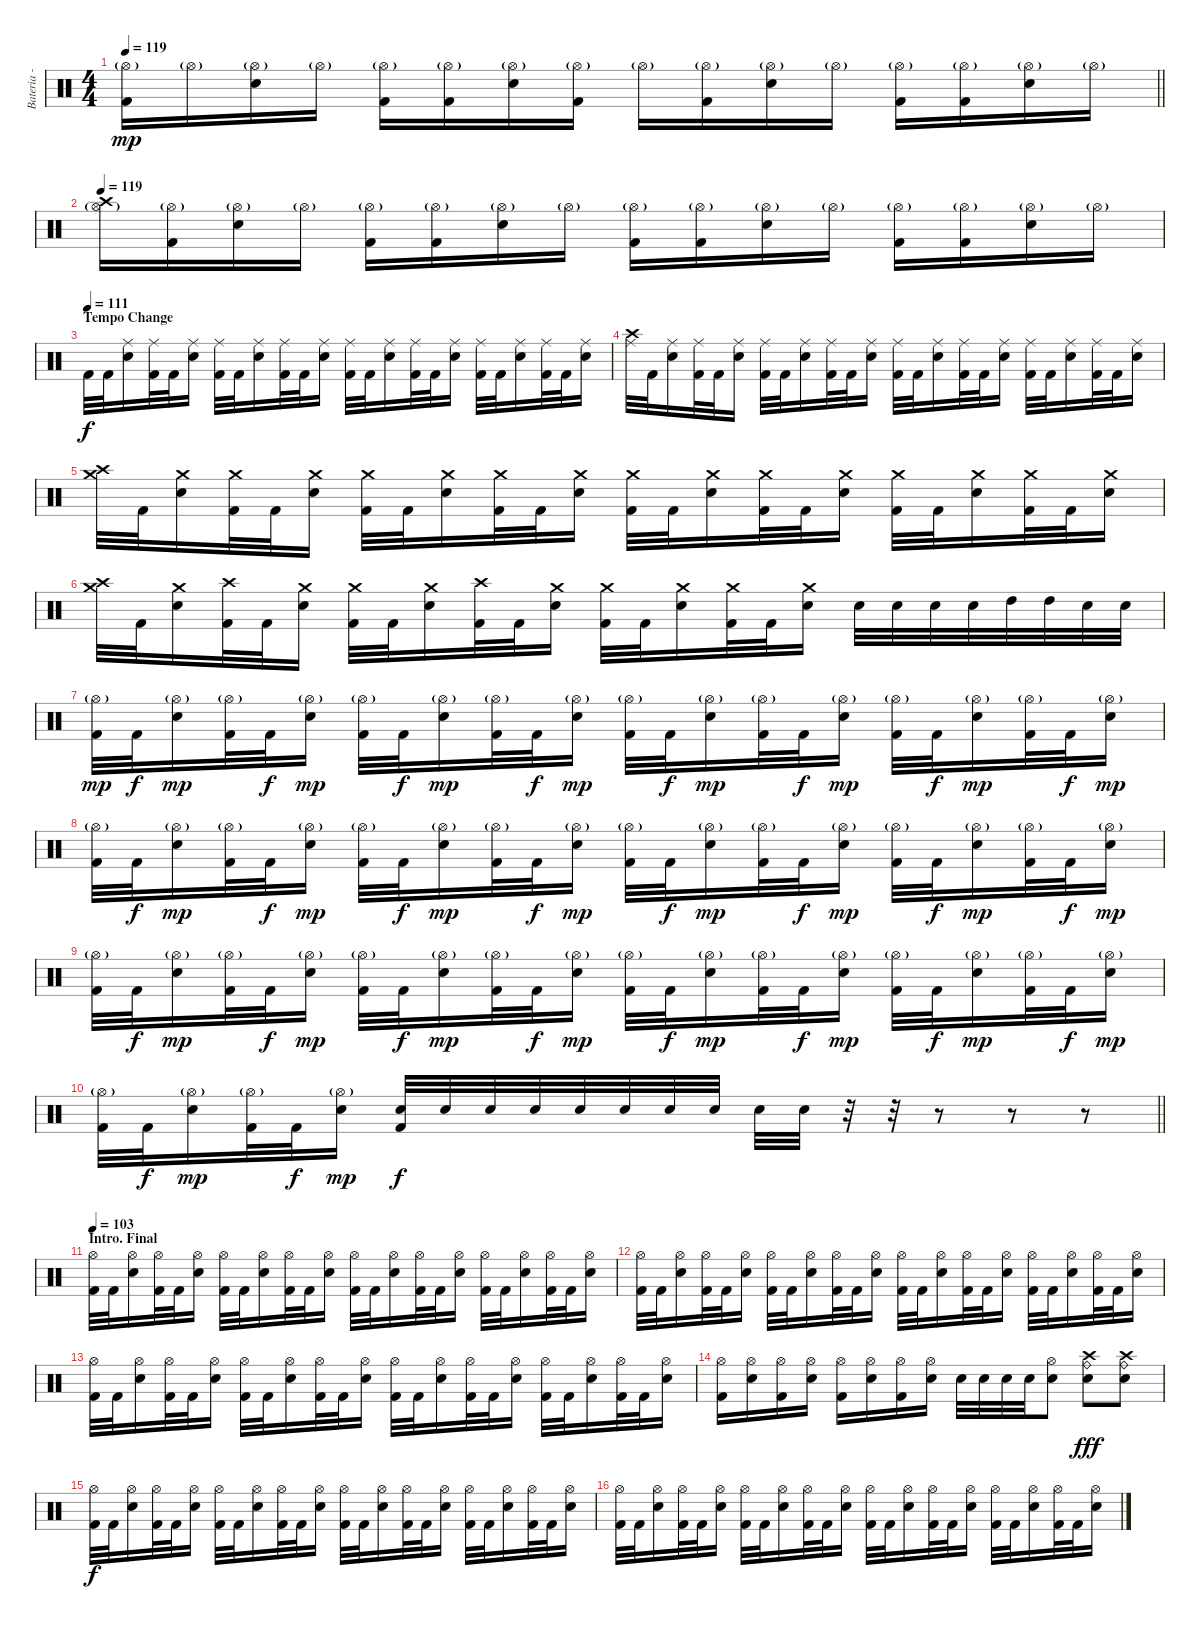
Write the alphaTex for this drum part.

\track ("Bateria - Larzon" "Bateria - ") {instrument percussion}
\staff {score}
\articulation defaults
\ts (4 4)
\tempo 119
\clef neutral
\barLineRight lightlight
\ks c
("Kick (hit) 2" "Hi-Hat (open)"{g}).16{dy mp} "Hi-Hat (open)"{g}.16 ("Electric Snare (hit)" "Hi-Hat (open)"{g}).16 "Hi-Hat (open)"{g}.16 ("Kick (hit) 2" "Hi-Hat (open)"{g}).16 ("Kick (hit) 2" "Hi-Hat (open)"{g}).16 ("Electric Snare (hit)" "Hi-Hat (open)"{g}).16 ("Kick (hit) 2" "Hi-Hat (open)"{g}).16 "Hi-Hat (open)"{g}.16 ("Kick (hit) 2" "Hi-Hat (open)"{g}).16 ("Electric Snare (hit)" "Hi-Hat (open)"{g}).16 "Hi-Hat (open)"{g}.16 ("Kick (hit) 2" "Hi-Hat (open)"{g}).16 ("Kick (hit) 2" "Hi-Hat (open)"{g}).16 ("Electric Snare (hit)" "Hi-Hat (open)"{g}).16 "Hi-Hat (open)"{g}.16 |
\tempo 119
("Crash high (hit)" "Hi-Hat (open)"{g}).16 ("Kick (hit) 2" "Hi-Hat (open)"{g}).16 ("Electric Snare (hit)" "Hi-Hat (open)"{g}).16 "Hi-Hat (open)"{g}.16 ("Kick (hit) 2" "Hi-Hat (open)"{g}).16 ("Kick (hit) 2" "Hi-Hat (open)"{g}).16 ("Electric Snare (hit)" "Hi-Hat (open)"{g}).16 "Hi-Hat (open)"{g}.16 ("Kick (hit) 2" "Hi-Hat (open)"{g}).16 ("Kick (hit) 2" "Hi-Hat (open)"{g}).16 ("Electric Snare (hit)" "Hi-Hat (open)"{g}).16 "Hi-Hat (open)"{g}.16 ("Kick (hit) 2" "Hi-Hat (open)"{g}).16 ("Kick (hit) 2" "Hi-Hat (open)"{g}).16 ("Electric Snare (hit)" "Hi-Hat (open)"{g}).16 "Hi-Hat (open)"{g}.16 |
\section ("" "Tempo Change")
\tempo (111)
"Kick (hit) 2".32{dy f} "Kick (hit) 2".32 ("Snare (hit) 2" "Ride (middle)").16 ("Kick (hit) 2" "Ride (middle)").32 "Kick (hit) 2".32 ("Snare (hit) 2" "Ride (middle)").16 ("Kick (hit) 2" "Ride (middle)").32 "Kick (hit) 2".32 ("Snare (hit) 2" "Ride (middle)").16 ("Kick (hit) 2" "Ride (middle)").32 "Kick (hit) 2".32 ("Snare (hit) 2" "Ride (middle)").16 ("Kick (hit) 2" "Ride (middle)").32 "Kick (hit) 2".32 ("Snare (hit) 2" "Ride (middle)").16 ("Kick (hit) 2" "Ride (middle)").32 "Kick (hit) 2".32 ("Snare (hit) 2" "Ride (middle)").16 ("Kick (hit) 2" "Ride (middle)").32 "Kick (hit) 2".32 ("Snare (hit) 2" "Ride (middle)").16 ("Kick (hit) 2" "Ride (middle)").32 "Kick (hit) 2".32 ("Snare (hit) 2" "Ride (middle)").16 |
("Crash high (hit)" "Ride (middle)").32 "Kick (hit) 2".32 ("Snare (hit) 2" "Ride (middle)").16 ("Kick (hit) 2" "Ride (middle)").32 "Kick (hit) 2".32 ("Snare (hit) 2" "Ride (middle)").16 ("Kick (hit) 2" "Ride (middle)").32 "Kick (hit) 2".32 ("Snare (hit) 2" "Ride (middle)").16 ("Kick (hit) 2" "Ride (middle)").32 "Kick (hit) 2".32 ("Snare (hit) 2" "Ride (middle)").16 ("Kick (hit) 2" "Ride (middle)").32 "Kick (hit) 2".32 ("Snare (hit) 2" "Ride (middle)").16 ("Kick (hit) 2" "Ride (middle)").32 "Kick (hit) 2".32 ("Snare (hit) 2" "Ride (middle)").16 ("Kick (hit) 2" "Ride (middle)").32 "Kick (hit) 2".32 ("Snare (hit) 2" "Ride (middle)").16 ("Kick (hit) 2" "Ride (middle)").32 "Kick (hit) 2".32 ("Snare (hit) 2" "Ride (middle)").16 |
("Crash high (hit)" "Crash medium (hit)").32 "Kick (hit) 2".32 ("Snare (hit) 2" "Crash medium (hit)").16 ("Kick (hit) 2" "Crash medium (hit)").32 "Kick (hit) 2".32 ("Snare (hit) 2" "Crash medium (hit)").16 ("Kick (hit) 2" "Crash medium (hit)").32 "Kick (hit) 2".32 ("Snare (hit) 2" "Crash medium (hit)").16 ("Kick (hit) 2" "Crash medium (hit)").32 "Kick (hit) 2".32 ("Snare (hit) 2" "Crash medium (hit)").16 ("Kick (hit) 2" "Crash medium (hit)").32 "Kick (hit) 2".32 ("Snare (hit) 2" "Crash medium (hit)").16 ("Kick (hit) 2" "Crash medium (hit)").32 "Kick (hit) 2".32 ("Snare (hit) 2" "Crash medium (hit)").16 ("Kick (hit) 2" "Crash medium (hit)").32 "Kick (hit) 2".32 ("Snare (hit) 2" "Crash medium (hit)").16 ("Kick (hit) 2" "Crash medium (hit)").32 "Kick (hit) 2".32 ("Snare (hit) 2" "Crash medium (hit)").16 |
("Crash high (hit)" "Crash medium (hit)").32 "Kick (hit) 2".32 ("Snare (hit) 2" "Crash medium (hit)").16 ("Kick (hit) 2" "Crash high (hit)").32 "Kick (hit) 2".32 ("Snare (hit) 2" "Crash medium (hit)").16 ("Kick (hit) 2" "Crash medium (hit)").32 "Kick (hit) 2".32 ("Snare (hit) 2" "Crash medium (hit)").16 ("Kick (hit) 2" "Crash high (hit)").32 "Kick (hit) 2".32 ("Snare (hit) 2" "Crash medium (hit)").16 ("Kick (hit) 2" "Crash medium (hit)").32 "Kick (hit) 2".32 ("Snare (hit) 2" "Crash medium (hit)").16 ("Kick (hit) 2" "Crash medium (hit)").32 "Kick (hit) 2".32 ("Snare (hit) 2" "Crash medium (hit)").16 "Snare (hit) 2".32 "Snare (hit) 2".32 "Snare (hit) 2".32 "Snare (hit) 2".32 "High Tom (hit)".32 "High Tom (hit)".32 "Snare (hit) 2".32 "Snare (hit) 2".32 |
("Kick (hit) 2" "Hi-Hat (open)"{g}).32{dy mp} "Kick (hit) 2".32{dy f} ("Snare (hit) 2" "Hi-Hat (open)"{g}).16{dy mp} ("Kick (hit) 2" "Hi-Hat (open)"{g}).32 "Kick (hit) 2".32{dy f} ("Snare (hit) 2" "Hi-Hat (open)"{g}).16{dy mp} ("Kick (hit) 2" "Hi-Hat (open)"{g}).32 "Kick (hit) 2".32{dy f} ("Snare (hit) 2" "Hi-Hat (open)"{g}).16{dy mp} ("Kick (hit) 2" "Hi-Hat (open)"{g}).32 "Kick (hit) 2".32{dy f} ("Snare (hit) 2" "Hi-Hat (open)"{g}).16{dy mp} ("Kick (hit) 2" "Hi-Hat (open)"{g}).32 "Kick (hit) 2".32{dy f} ("Snare (hit) 2" "Hi-Hat (open)"{g}).16{dy mp} ("Kick (hit) 2" "Hi-Hat (open)"{g}).32 "Kick (hit) 2".32{dy f} ("Snare (hit) 2" "Hi-Hat (open)"{g}).16{dy mp} ("Kick (hit) 2" "Hi-Hat (open)"{g}).32 "Kick (hit) 2".32{dy f} ("Snare (hit) 2" "Hi-Hat (open)"{g}).16{dy mp} ("Kick (hit) 2" "Hi-Hat (open)"{g}).32 "Kick (hit) 2".32{dy f} ("Snare (hit) 2" "Hi-Hat (open)"{g}).16{dy mp} |
("Kick (hit) 2" "Hi-Hat (open)"{g}).32 "Kick (hit) 2".32{dy f} ("Snare (hit) 2" "Hi-Hat (open)"{g}).16{dy mp} ("Kick (hit) 2" "Hi-Hat (open)"{g}).32 "Kick (hit) 2".32{dy f} ("Snare (hit) 2" "Hi-Hat (open)"{g}).16{dy mp} ("Kick (hit) 2" "Hi-Hat (open)"{g}).32 "Kick (hit) 2".32{dy f} ("Snare (hit) 2" "Hi-Hat (open)"{g}).16{dy mp} ("Kick (hit) 2" "Hi-Hat (open)"{g}).32 "Kick (hit) 2".32{dy f} ("Snare (hit) 2" "Hi-Hat (open)"{g}).16{dy mp} ("Kick (hit) 2" "Hi-Hat (open)"{g}).32 "Kick (hit) 2".32{dy f} ("Snare (hit) 2" "Hi-Hat (open)"{g}).16{dy mp} ("Kick (hit) 2" "Hi-Hat (open)"{g}).32 "Kick (hit) 2".32{dy f} ("Snare (hit) 2" "Hi-Hat (open)"{g}).16{dy mp} ("Kick (hit) 2" "Hi-Hat (open)"{g}).32 "Kick (hit) 2".32{dy f} ("Snare (hit) 2" "Hi-Hat (open)"{g}).16{dy mp} ("Kick (hit) 2" "Hi-Hat (open)"{g}).32 "Kick (hit) 2".32{dy f} ("Snare (hit) 2" "Hi-Hat (open)"{g}).16{dy mp} |
("Kick (hit) 2" "Hi-Hat (open)"{g}).32 "Kick (hit) 2".32{dy f} ("Snare (hit) 2" "Hi-Hat (open)"{g}).16{dy mp} ("Kick (hit) 2" "Hi-Hat (open)"{g}).32 "Kick (hit) 2".32{dy f} ("Snare (hit) 2" "Hi-Hat (open)"{g}).16{dy mp} ("Kick (hit) 2" "Hi-Hat (open)"{g}).32 "Kick (hit) 2".32{dy f} ("Snare (hit) 2" "Hi-Hat (open)"{g}).16{dy mp} ("Kick (hit) 2" "Hi-Hat (open)"{g}).32 "Kick (hit) 2".32{dy f} ("Snare (hit) 2" "Hi-Hat (open)"{g}).16{dy mp} ("Kick (hit) 2" "Hi-Hat (open)"{g}).32 "Kick (hit) 2".32{dy f} ("Snare (hit) 2" "Hi-Hat (open)"{g}).16{dy mp} ("Kick (hit) 2" "Hi-Hat (open)"{g}).32 "Kick (hit) 2".32{dy f} ("Snare (hit) 2" "Hi-Hat (open)"{g}).16{dy mp} ("Kick (hit) 2" "Hi-Hat (open)"{g}).32 "Kick (hit) 2".32{dy f} ("Snare (hit) 2" "Hi-Hat (open)"{g}).16{dy mp} ("Kick (hit) 2" "Hi-Hat (open)"{g}).32 "Kick (hit) 2".32{dy f} ("Snare (hit) 2" "Hi-Hat (open)"{g}).16{dy mp} |
\barLineRight lightlight
("Kick (hit) 2" "Hi-Hat (open)"{g}).32 "Kick (hit) 2".32{dy f} ("Snare (hit) 2" "Hi-Hat (open)"{g}).16{dy mp} ("Kick (hit) 2" "Hi-Hat (open)"{g}).32 "Kick (hit) 2".32{dy f} ("Snare (hit) 2" "Hi-Hat (open)"{g}).16{dy mp} ("Snare (hit) 2" "Kick (hit) 2").32{dy f} "Snare (hit) 2".32 "Snare (hit) 2".32 "Snare (hit) 2".32 "Snare (hit) 2".32 "Snare (hit) 2".32 "Snare (hit) 2".32 "Snare (hit) 2".32 "Snare (hit) 2".32 "Snare (hit) 2".32 r.32 r.32 r.8 r.8 r.8 |
\section ("" "Intro. Final")
\tempo 103
("Kick (hit) 2" "Hi-Hat (open)").32 "Kick (hit) 2".32 ("Snare (hit) 2" "Hi-Hat (open)").16 ("Kick (hit) 2" "Hi-Hat (open)").32 "Kick (hit) 2".32 ("Snare (hit) 2" "Hi-Hat (open)").16 ("Kick (hit) 2" "Hi-Hat (open)").32 "Kick (hit) 2".32 ("Snare (hit) 2" "Hi-Hat (open)").16 ("Kick (hit) 2" "Hi-Hat (open)").32 "Kick (hit) 2".32 ("Snare (hit) 2" "Hi-Hat (open)").16 ("Kick (hit) 2" "Hi-Hat (open)").32 "Kick (hit) 2".32 ("Snare (hit) 2" "Hi-Hat (open)").16 ("Kick (hit) 2" "Hi-Hat (open)").32 "Kick (hit) 2".32 ("Snare (hit) 2" "Hi-Hat (open)").16 ("Kick (hit) 2" "Hi-Hat (open)").32 "Kick (hit) 2".32 ("Snare (hit) 2" "Hi-Hat (open)").16 ("Kick (hit) 2" "Hi-Hat (open)").32 "Kick (hit) 2".32 ("Snare (hit) 2" "Hi-Hat (open)").16 |
("Kick (hit) 2" "Hi-Hat (open)").32 "Kick (hit) 2".32 ("Snare (hit) 2" "Hi-Hat (open)").16 ("Kick (hit) 2" "Hi-Hat (open)").32 "Kick (hit) 2".32 ("Snare (hit) 2" "Hi-Hat (open)").16 ("Kick (hit) 2" "Hi-Hat (open)").32 "Kick (hit) 2".32 ("Snare (hit) 2" "Hi-Hat (open)").16 ("Kick (hit) 2" "Hi-Hat (open)").32 "Kick (hit) 2".32 ("Snare (hit) 2" "Hi-Hat (open)").16 ("Kick (hit) 2" "Hi-Hat (open)").32 "Kick (hit) 2".32 ("Snare (hit) 2" "Hi-Hat (open)").16 ("Kick (hit) 2" "Hi-Hat (open)").32 "Kick (hit) 2".32 ("Snare (hit) 2" "Hi-Hat (open)").16 ("Kick (hit) 2" "Hi-Hat (open)").32 "Kick (hit) 2".32 ("Snare (hit) 2" "Hi-Hat (open)").16 ("Kick (hit) 2" "Hi-Hat (open)").32 "Kick (hit) 2".32 ("Snare (hit) 2" "Hi-Hat (open)").16 |
("Kick (hit) 2" "Hi-Hat (open)").32 "Kick (hit) 2".32 ("Snare (hit) 2" "Hi-Hat (open)").16 ("Kick (hit) 2" "Hi-Hat (open)").32 "Kick (hit) 2".32 ("Snare (hit) 2" "Hi-Hat (open)").16 ("Kick (hit) 2" "Hi-Hat (open)").32 "Kick (hit) 2".32 ("Snare (hit) 2" "Hi-Hat (open)").16 ("Kick (hit) 2" "Hi-Hat (open)").32 "Kick (hit) 2".32 ("Snare (hit) 2" "Hi-Hat (open)").16 ("Kick (hit) 2" "Hi-Hat (open)").32 "Kick (hit) 2".32 ("Snare (hit) 2" "Hi-Hat (open)").16 ("Kick (hit) 2" "Hi-Hat (open)").32 "Kick (hit) 2".32 ("Snare (hit) 2" "Hi-Hat (open)").16 ("Kick (hit) 2" "Hi-Hat (open)").32 "Kick (hit) 2".32 ("Snare (hit) 2" "Hi-Hat (open)").16 ("Kick (hit) 2" "Hi-Hat (open)").32 "Kick (hit) 2".32 ("Snare (hit) 2" "Hi-Hat (open)").16 |
("Kick (hit) 2" "Hi-Hat (open)").16 ("Snare (hit) 2" "Hi-Hat (open)").16 ("Kick (hit) 2" "Hi-Hat (open)").16 ("Snare (hit) 2" "Hi-Hat (open)").16 ("Kick (hit) 2" "Hi-Hat (open)").16 ("Snare (hit) 2" "Hi-Hat (open)").16 ("Kick (hit) 2" "Hi-Hat (open)").16 ("Snare (hit) 2" "Hi-Hat (open)").16 "Snare (hit) 2".32 "Snare (hit) 2".32 "Snare (hit) 2".32 "Snare (hit) 2".32 ("Snare (hit) 2" "Hi-Hat (open)").8 ("Snare (hit) 2" "Ride (bell)" "Crash high (hit)").8{dy fff} ("Snare (hit) 2" "Ride (bell)" "Crash high (hit)").8 |
("Kick (hit) 2" "Hi-Hat (open)").32{dy f} "Kick (hit) 2".32 ("Snare (hit) 2" "Hi-Hat (open)").16 ("Kick (hit) 2" "Hi-Hat (open)").32 "Kick (hit) 2".32 ("Snare (hit) 2" "Hi-Hat (open)").16 ("Kick (hit) 2" "Hi-Hat (open)").32 "Kick (hit) 2".32 ("Snare (hit) 2" "Hi-Hat (open)").16 ("Kick (hit) 2" "Hi-Hat (open)").32 "Kick (hit) 2".32 ("Snare (hit) 2" "Hi-Hat (open)").16 ("Kick (hit) 2" "Hi-Hat (open)").32 "Kick (hit) 2".32 ("Snare (hit) 2" "Hi-Hat (open)").16 ("Kick (hit) 2" "Hi-Hat (open)").32 "Kick (hit) 2".32 ("Snare (hit) 2" "Hi-Hat (open)").16 ("Kick (hit) 2" "Hi-Hat (open)").32 "Kick (hit) 2".32 ("Snare (hit) 2" "Hi-Hat (open)").16 ("Kick (hit) 2" "Hi-Hat (open)").32 "Kick (hit) 2".32 ("Snare (hit) 2" "Hi-Hat (open)").16 |
("Kick (hit) 2" "Hi-Hat (open)").32 "Kick (hit) 2".32 ("Snare (hit) 2" "Hi-Hat (open)").16 ("Kick (hit) 2" "Hi-Hat (open)").32 "Kick (hit) 2".32 ("Snare (hit) 2" "Hi-Hat (open)").16 ("Kick (hit) 2" "Hi-Hat (open)").32 "Kick (hit) 2".32 ("Snare (hit) 2" "Hi-Hat (open)").16 ("Kick (hit) 2" "Hi-Hat (open)").32 "Kick (hit) 2".32 ("Snare (hit) 2" "Hi-Hat (open)").16 ("Kick (hit) 2" "Hi-Hat (open)").32 "Kick (hit) 2".32 ("Snare (hit) 2" "Hi-Hat (open)").16 ("Kick (hit) 2" "Hi-Hat (open)").32 "Kick (hit) 2".32 ("Snare (hit) 2" "Hi-Hat (open)").16 ("Kick (hit) 2" "Hi-Hat (open)").32 "Kick (hit) 2".32 ("Snare (hit) 2" "Hi-Hat (open)").16 ("Kick (hit) 2" "Hi-Hat (open)").32 "Kick (hit) 2".32 ("Snare (hit) 2" "Hi-Hat (open)").16
